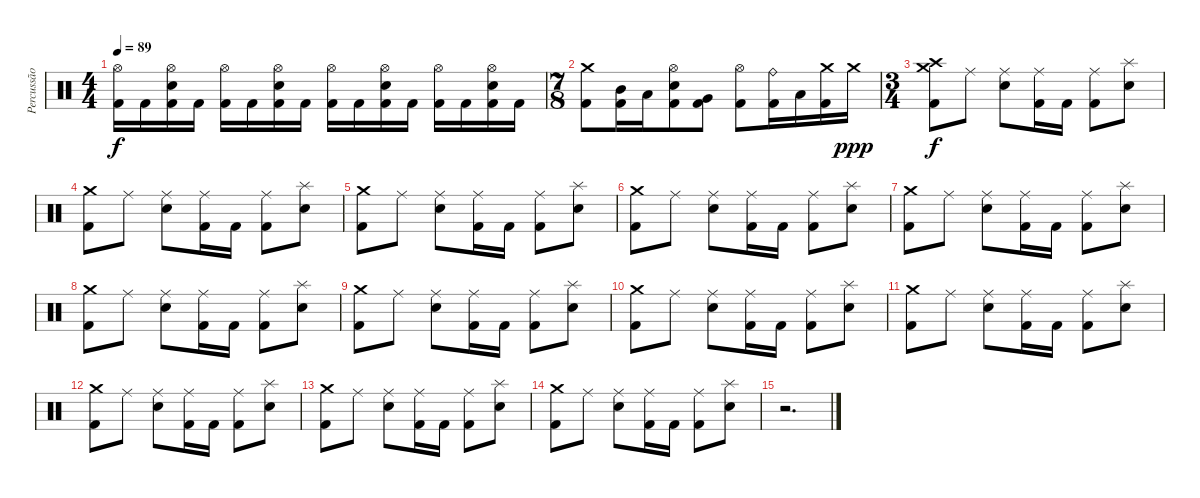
\track ("Percussão" "Percussão") {instrument percussion}
\staff {score}
\articulation defaults
\ts (4 4)
\tempo 89
\clef neutral
\ks c
("Hi-Hat (open)" "Kick (hit) 2").16{dy f} "Kick (hit) 2".16 ("Hi-Hat (open)" "Snare (hit) 2" "Kick (hit) 2").16 "Kick (hit) 2".16 ("Hi-Hat (open)" "Kick (hit) 2").16 "Kick (hit) 2".16 ("Hi-Hat (open)" "Snare (hit) 2" "Kick (hit) 2").16 "Kick (hit) 2".16 ("Hi-Hat (open)" "Kick (hit) 2").16 "Kick (hit) 2".16 ("Hi-Hat (open)" "Snare (hit) 2" "Kick (hit) 2").16 "Kick (hit) 2".16 ("Hi-Hat (open)" "Kick (hit) 2").16 "Kick (hit) 2".16 ("Hi-Hat (open)" "Snare (hit) 2" "Kick (hit) 2").16 "Kick (hit) 2".16 |
\ts (7 8)
("Crash medium (hit)" "Kick (hit) 2").8 ("Mid Tom (hit)" "Kick (hit) 2").16 "Low Tom (hit)".16 ("Hi-Hat (open)" "Snare (hit) 2" "Kick (hit) 2").8 ("Very Low Tom (hit)" "Kick (hit) 2").8 ("Hi-Hat (open)" "Kick (hit) 2").8 ("Ride (bell)" "Kick (hit) 2").16 "Low Tom (hit)".16 ("Crash medium (hit)" "Kick (hit) 2").16 "Crash medium (hit)".16{dy ppp} |
\ts (3 4)
("Crash medium (hit)" "Crash high (hit)" "Kick (hit) 2").8{dy f} "Ride (middle)".8 ("Ride (middle)" "Snare (hit) 2").8 ("Ride (middle)" "Kick (hit) 2").16 "Kick (hit) 2".16 ("Ride (middle)" "Kick (hit) 2").8 ("Splash (hit)" "Snare (hit) 2").8 |
("Crash medium (hit)" "Kick (hit) 2").8 "Ride (middle)".8 ("Ride (middle)" "Snare (hit) 2").8 ("Ride (middle)" "Kick (hit) 2").16 "Kick (hit) 2".16 ("Ride (middle)" "Kick (hit) 2").8 ("Splash (hit)" "Snare (hit) 2").8 |
("Crash medium (hit)" "Kick (hit) 2").8 "Ride (middle)".8 ("Ride (middle)" "Snare (hit) 2").8 ("Ride (middle)" "Kick (hit) 2").16 "Kick (hit) 2".16 ("Ride (middle)" "Kick (hit) 2").8 ("Splash (hit)" "Snare (hit) 2").8 |
("Crash medium (hit)" "Kick (hit) 2").8 "Ride (middle)".8 ("Ride (middle)" "Snare (hit) 2").8 ("Ride (middle)" "Kick (hit) 2").16 "Kick (hit) 2".16 ("Ride (middle)" "Kick (hit) 2").8 ("Splash (hit)" "Snare (hit) 2").8 |
("Crash medium (hit)" "Kick (hit) 2").8 "Ride (middle)".8 ("Ride (middle)" "Snare (hit) 2").8 ("Ride (middle)" "Kick (hit) 2").16 "Kick (hit) 2".16 ("Ride (middle)" "Kick (hit) 2").8 ("Splash (hit)" "Snare (hit) 2").8 |
("Crash medium (hit)" "Kick (hit) 2").8 "Ride (middle)".8 ("Ride (middle)" "Snare (hit) 2").8 ("Ride (middle)" "Kick (hit) 2").16 "Kick (hit) 2".16 ("Ride (middle)" "Kick (hit) 2").8 ("Splash (hit)" "Snare (hit) 2").8 |
("Crash medium (hit)" "Kick (hit) 2").8 "Ride (middle)".8 ("Ride (middle)" "Snare (hit) 2").8 ("Ride (middle)" "Kick (hit) 2").16 "Kick (hit) 2".16 ("Ride (middle)" "Kick (hit) 2").8 ("Splash (hit)" "Snare (hit) 2").8 |
("Crash medium (hit)" "Kick (hit) 2").8 "Ride (middle)".8 ("Ride (middle)" "Snare (hit) 2").8 ("Ride (middle)" "Kick (hit) 2").16 "Kick (hit) 2".16 ("Ride (middle)" "Kick (hit) 2").8 ("Splash (hit)" "Snare (hit) 2").8 |
("Crash medium (hit)" "Kick (hit) 2").8 "Ride (middle)".8 ("Ride (middle)" "Snare (hit) 2").8 ("Ride (middle)" "Kick (hit) 2").16 "Kick (hit) 2".16 ("Ride (middle)" "Kick (hit) 2").8 ("Splash (hit)" "Snare (hit) 2").8 |
("Crash medium (hit)" "Kick (hit) 2").8 "Ride (middle)".8 ("Ride (middle)" "Snare (hit) 2").8 ("Ride (middle)" "Kick (hit) 2").16 "Kick (hit) 2".16 ("Ride (middle)" "Kick (hit) 2").8 ("Splash (hit)" "Snare (hit) 2").8 |
("Crash medium (hit)" "Kick (hit) 2").8 "Ride (middle)".8 ("Ride (middle)" "Snare (hit) 2").8 ("Ride (middle)" "Kick (hit) 2").16 "Kick (hit) 2".16 ("Ride (middle)" "Kick (hit) 2").8 ("Splash (hit)" "Snare (hit) 2").8 |
("Crash medium (hit)" "Kick (hit) 2").8 "Ride (middle)".8 ("Ride (middle)" "Snare (hit) 2").8 ("Ride (middle)" "Kick (hit) 2").16 "Kick (hit) 2".16 ("Ride (middle)" "Kick (hit) 2").8 ("Splash (hit)" "Snare (hit) 2").8 |
r.2{d}
